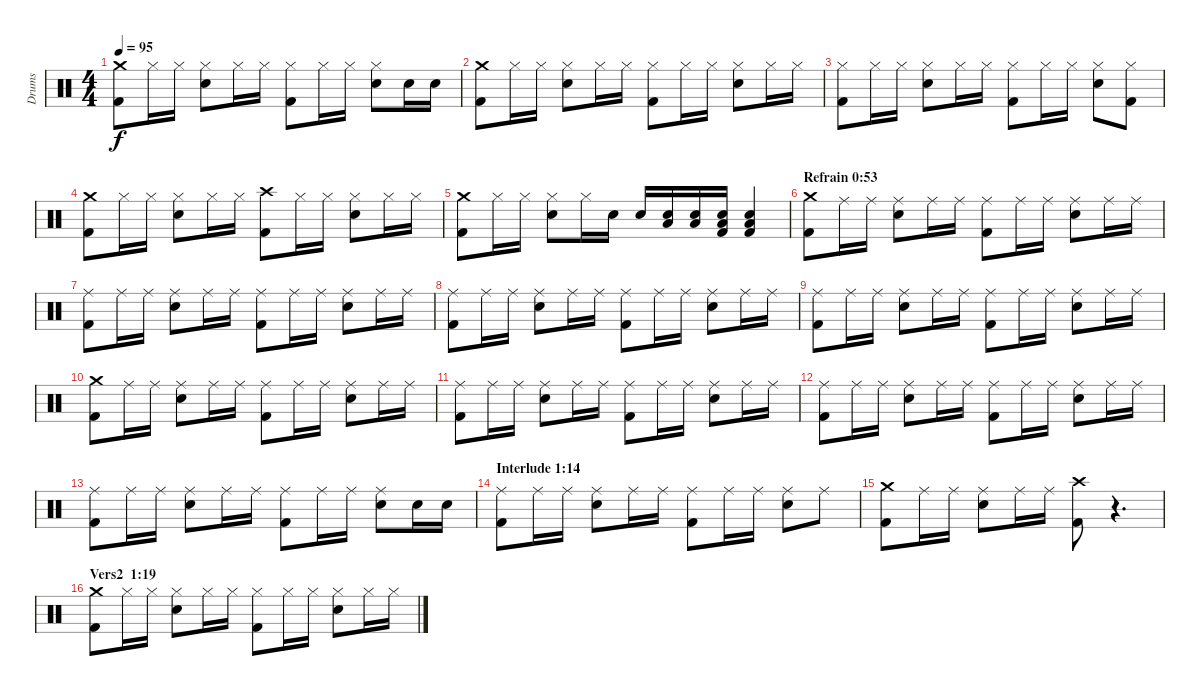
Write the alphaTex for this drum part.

\track ("Drums" "Drums") {instrument percussion}
\staff {score}
\articulation defaults
\ts (4 4)
\tempo 95
\clef neutral
\ks c
("Crash medium (hit)" "Kick (hit) 2").8{dy f} "Hi-Hat (closed)".16 "Hi-Hat (closed)".16 ("Hi-Hat (closed)" "Snare (hit) 2").8 "Hi-Hat (closed)".16 "Hi-Hat (closed)".16 ("Hi-Hat (closed)" "Kick (hit) 2").8 "Hi-Hat (closed)".16 "Hi-Hat (closed)".16 ("Hi-Hat (closed)" "Snare (hit) 2").8 "Snare (hit) 2".16 "Snare (hit) 2".16 |
("Crash medium (hit)" "Kick (hit) 2").8 "Hi-Hat (closed)".16 "Hi-Hat (closed)".16 ("Hi-Hat (closed)" "Snare (hit) 2").8 "Hi-Hat (closed)".16 "Hi-Hat (closed)".16 ("Hi-Hat (closed)" "Kick (hit) 2").8 "Hi-Hat (closed)".16 "Hi-Hat (closed)".16 ("Hi-Hat (closed)" "Snare (hit) 2").8 "Hi-Hat (closed)".16 "Hi-Hat (closed)".16 |
("Hi-Hat (closed)" "Kick (hit) 2").8 "Hi-Hat (closed)".16 "Hi-Hat (closed)".16 ("Hi-Hat (closed)" "Snare (hit) 2").8 "Hi-Hat (closed)".16 "Hi-Hat (closed)".16 ("Hi-Hat (closed)" "Kick (hit) 2").8 "Hi-Hat (closed)".16 "Hi-Hat (closed)".16 ("Hi-Hat (closed)" "Snare (hit) 2").8 ("Hi-Hat (closed)" "Kick (hit) 2").8 |
("Crash medium (hit)" "Kick (hit) 2").8 "Hi-Hat (closed)".16 "Hi-Hat (closed)".16 ("Hi-Hat (closed)" "Snare (hit) 2").8 "Hi-Hat (closed)".16 "Hi-Hat (closed)".16 ("Crash high (hit)" "Kick (hit) 2").8 "Hi-Hat (closed)".16 "Hi-Hat (closed)".16 ("Hi-Hat (closed)" "Snare (hit) 2").8 "Hi-Hat (closed)".16 "Hi-Hat (closed)".16 |
("Crash medium (hit)" "Kick (hit) 2").8 "Hi-Hat (closed)".16 "Hi-Hat (closed)".16 ("Hi-Hat (closed)" "Snare (hit) 2").8 "Hi-Hat (closed)".16 "Snare (hit) 2".16 "Snare (hit) 2".16 ("Low Floor Tom (hit)" "Snare (hit) 2").16 ("Low Floor Tom (hit)" "Snare (hit) 2").16 ("Low Floor Tom (hit)" "Snare (hit) 2" "Kick (hit) 2").16 ("Low Floor Tom (hit)" "Snare (hit) 2" "Kick (hit) 2").4 |
\section ("" "Refrain 0:53")
("Crash medium (hit)" "Kick (hit) 2").8 "Ride (middle)".16 "Ride (middle)".16 ("Ride (middle)" "Snare (hit) 2").8 "Ride (middle)".16 "Ride (middle)".16 ("Ride (middle)" "Kick (hit) 2").8 "Ride (middle)".16 "Ride (middle)".16 ("Ride (middle)" "Snare (hit) 2").8 "Ride (middle)".16 "Ride (middle)".16 |
("Ride (middle)" "Kick (hit) 2").8 "Ride (middle)".16 "Ride (middle)".16 ("Ride (middle)" "Snare (hit) 2").8 "Ride (middle)".16 "Ride (middle)".16 ("Ride (middle)" "Kick (hit) 2").8 "Ride (middle)".16 "Ride (middle)".16 ("Ride (middle)" "Snare (hit) 2").8 "Ride (middle)".16 "Ride (middle)".16 |
("Ride (middle)" "Kick (hit) 2").8 "Ride (middle)".16 "Ride (middle)".16 ("Ride (middle)" "Snare (hit) 2").8 "Ride (middle)".16 "Ride (middle)".16 ("Ride (middle)" "Kick (hit) 2").8 "Ride (middle)".16 "Ride (middle)".16 ("Ride (middle)" "Snare (hit) 2").8 "Ride (middle)".16 "Ride (middle)".16 |
("Ride (middle)" "Kick (hit) 2").8 "Ride (middle)".16 "Ride (middle)".16 ("Ride (middle)" "Snare (hit) 2").8 "Ride (middle)".16 "Ride (middle)".16 ("Ride (middle)" "Kick (hit) 2").8 "Ride (middle)".16 "Ride (middle)".16 ("Ride (middle)" "Snare (hit) 2").8 "Ride (middle)".16 "Ride (middle)".16 |
("Crash medium (hit)" "Kick (hit) 2").8 "Ride (middle)".16 "Ride (middle)".16 ("Ride (middle)" "Snare (hit) 2").8 "Ride (middle)".16 "Ride (middle)".16 ("Ride (middle)" "Kick (hit) 2").8 "Ride (middle)".16 "Ride (middle)".16 ("Ride (middle)" "Snare (hit) 2").8 "Ride (middle)".16 "Ride (middle)".16 |
("Ride (middle)" "Kick (hit) 2").8 "Ride (middle)".16 "Ride (middle)".16 ("Ride (middle)" "Snare (hit) 2").8 "Ride (middle)".16 "Ride (middle)".16 ("Ride (middle)" "Kick (hit) 2").8 "Ride (middle)".16 "Ride (middle)".16 ("Ride (middle)" "Snare (hit) 2").8 "Ride (middle)".16 "Ride (middle)".16 |
("Ride (middle)" "Kick (hit) 2").8 "Ride (middle)".16 "Ride (middle)".16 ("Ride (middle)" "Snare (hit) 2").8 "Ride (middle)".16 "Ride (middle)".16 ("Ride (middle)" "Kick (hit) 2").8 "Ride (middle)".16 "Ride (middle)".16 ("Ride (middle)" "Snare (hit) 2").8 "Ride (middle)".16 "Ride (middle)".16 |
("Ride (middle)" "Kick (hit) 2").8 "Ride (middle)".16 "Ride (middle)".16 ("Ride (middle)" "Snare (hit) 2").8 "Ride (middle)".16 "Ride (middle)".16 ("Ride (middle)" "Kick (hit) 2").8 "Ride (middle)".16 "Ride (middle)".16 ("Ride (middle)" "Snare (hit) 2").8 "Snare (hit) 2".16 "Snare (hit) 2".16 |
\section ("" "Interlude 1:14")
("Ride (middle)" "Kick (hit) 2").8 "Ride (middle)".16 "Ride (middle)".16 ("Ride (middle)" "Snare (hit) 2").8 "Ride (middle)".16 "Ride (middle)".16 ("Ride (middle)" "Kick (hit) 2").8 "Ride (middle)".16 "Ride (middle)".16 ("Ride (middle)" "Snare (hit) 2").8 "Ride (middle)".8 |
("Crash medium (hit)" "Kick (hit) 2").8 "Ride (middle)".16 "Ride (middle)".16 ("Ride (middle)" "Snare (hit) 2").8 "Ride (middle)".16 "Ride (middle)".16 ("Crash high (hit)" "Kick (hit) 2").8 r.4{d} |
\section ("" "Vers2  1:19")
("Crash medium (hit)" "Kick (hit) 2").8 "Hi-Hat (closed)".16 "Hi-Hat (closed)".16 ("Hi-Hat (closed)" "Snare (hit) 2").8 "Hi-Hat (closed)".16 "Hi-Hat (closed)".16 ("Hi-Hat (closed)" "Kick (hit) 2").8 "Hi-Hat (closed)".16 "Hi-Hat (closed)".16 ("Hi-Hat (closed)" "Snare (hit) 2").8 "Hi-Hat (closed)".16 "Hi-Hat (closed)".16
